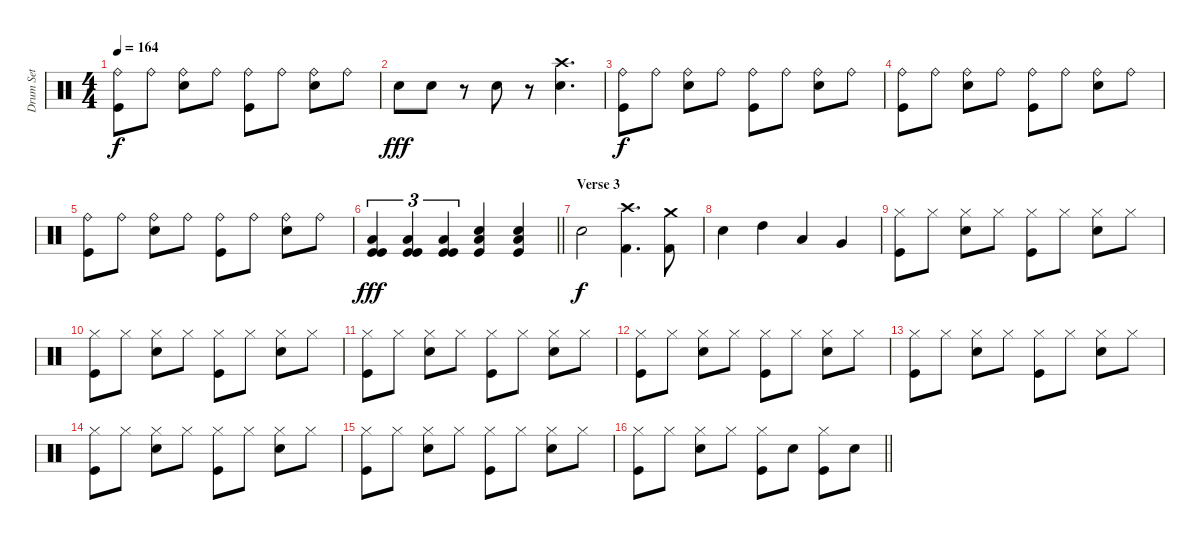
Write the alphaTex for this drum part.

\track ("Drum Set" "Drum Set") {instrument percussion}
\staff {score}
\articulation defaults
\ts (4 4)
\tempo 164
\clef neutral
\ks c
("Kick (hit)" "Ride (bell)").8{dy f} "Ride (bell)".8 ("Electric Snare (hit)" "Ride (bell)").8 "Ride (bell)".8 ("Kick (hit)" "Ride (bell)").8 "Ride (bell)".8 ("Electric Snare (hit)" "Ride (bell)").8 "Ride (bell)".8 |
"Electric Snare (hit)".8{dy fff} "Electric Snare (hit)".8 r.8 "Electric Snare (hit)".8 r.8 ("Crash high (hit)" "Electric Snare (hit)").4{d} |
("Kick (hit)" "Ride (bell)").8{dy f} "Ride (bell)".8 ("Electric Snare (hit)" "Ride (bell)").8 "Ride (bell)".8 ("Kick (hit)" "Ride (bell)").8 "Ride (bell)".8 ("Electric Snare (hit)" "Ride (bell)").8 "Ride (bell)".8 |
("Kick (hit)" "Ride (bell)").8 "Ride (bell)".8 ("Electric Snare (hit)" "Ride (bell)").8 "Ride (bell)".8 ("Kick (hit)" "Ride (bell)").8 "Ride (bell)".8 ("Electric Snare (hit)" "Ride (bell)").8 "Ride (bell)".8 |
("Kick (hit)" "Ride (bell)").8 "Ride (bell)".8 ("Electric Snare (hit)" "Ride (bell)").8 "Ride (bell)".8 ("Kick (hit)" "Ride (bell)").8 "Ride (bell)".8 ("Electric Snare (hit)" "Ride (bell)").8 "Ride (bell)".8 |
\barLineRight lightlight
("Kick (hit)" "Kick (hit)" "Low Floor Tom (hit)").4{tu (3 2) dy fff} ("Kick (hit)" "Kick (hit)" "Low Floor Tom (hit)").4{tu (3 2)} ("Kick (hit)" "Kick (hit)" "Low Floor Tom (hit)").4{tu (3 2)} ("Electric Snare (hit)" "Kick (hit)" "Low Floor Tom (hit)").4 ("Electric Snare (hit)" "Kick (hit)" "Low Floor Tom (hit)").4 |
\section ("" "Verse 3")
"Electric Snare (hit)".2{dy f} ("Crash high (hit)" "Kick (hit) 2").4{d} ("Crash medium (hit)" "Kick (hit) 2").8 |
"Electric Snare (hit)".4 "High Tom (hit)".4 "Low Tom (hit)".4 "Very Low Tom (hit)".4 |
("Kick (hit)" "Hi-Hat (closed)").8 "Hi-Hat (closed)".8 ("Electric Snare (hit)" "Hi-Hat (closed)").8 "Hi-Hat (closed)".8 ("Kick (hit)" "Hi-Hat (closed)").8 "Hi-Hat (closed)".8 ("Electric Snare (hit)" "Hi-Hat (closed)").8 "Hi-Hat (closed)".8 |
("Kick (hit)" "Hi-Hat (closed)").8 "Hi-Hat (closed)".8 ("Electric Snare (hit)" "Hi-Hat (closed)").8 "Hi-Hat (closed)".8 ("Kick (hit)" "Hi-Hat (closed)").8 "Hi-Hat (closed)".8 ("Electric Snare (hit)" "Hi-Hat (closed)").8 "Hi-Hat (closed)".8 |
("Kick (hit)" "Hi-Hat (closed)").8 "Hi-Hat (closed)".8 ("Electric Snare (hit)" "Hi-Hat (closed)").8 "Hi-Hat (closed)".8 ("Kick (hit)" "Hi-Hat (closed)").8 "Hi-Hat (closed)".8 ("Electric Snare (hit)" "Hi-Hat (closed)").8 "Hi-Hat (closed)".8 |
("Kick (hit)" "Hi-Hat (closed)").8 "Hi-Hat (closed)".8 ("Electric Snare (hit)" "Hi-Hat (closed)").8 "Hi-Hat (closed)".8 ("Kick (hit)" "Hi-Hat (closed)").8 "Hi-Hat (closed)".8 ("Electric Snare (hit)" "Hi-Hat (closed)").8 "Hi-Hat (closed)".8 |
("Kick (hit)" "Hi-Hat (closed)").8 "Hi-Hat (closed)".8 ("Electric Snare (hit)" "Hi-Hat (closed)").8 "Hi-Hat (closed)".8 ("Kick (hit)" "Hi-Hat (closed)").8 "Hi-Hat (closed)".8 ("Electric Snare (hit)" "Hi-Hat (closed)").8 "Hi-Hat (closed)".8 |
("Kick (hit)" "Hi-Hat (closed)").8 "Hi-Hat (closed)".8 ("Electric Snare (hit)" "Hi-Hat (closed)").8 "Hi-Hat (closed)".8 ("Kick (hit)" "Hi-Hat (closed)").8 "Hi-Hat (closed)".8 ("Electric Snare (hit)" "Hi-Hat (closed)").8 "Hi-Hat (closed)".8 |
("Kick (hit)" "Hi-Hat (closed)").8 "Hi-Hat (closed)".8 ("Electric Snare (hit)" "Hi-Hat (closed)").8 "Hi-Hat (closed)".8 ("Kick (hit)" "Hi-Hat (closed)").8 "Hi-Hat (closed)".8 ("Electric Snare (hit)" "Hi-Hat (closed)").8 "Hi-Hat (closed)".8 |
\barLineRight lightlight
("Kick (hit)" "Hi-Hat (closed)").8 "Hi-Hat (closed)".8 ("Electric Snare (hit)" "Hi-Hat (closed)").8 "Hi-Hat (closed)".8 ("Kick (hit)" "Hi-Hat (closed)").8 "Electric Snare (hit)".8 ("Kick (hit)" "Hi-Hat (closed)").8 "Electric Snare (hit)".8
